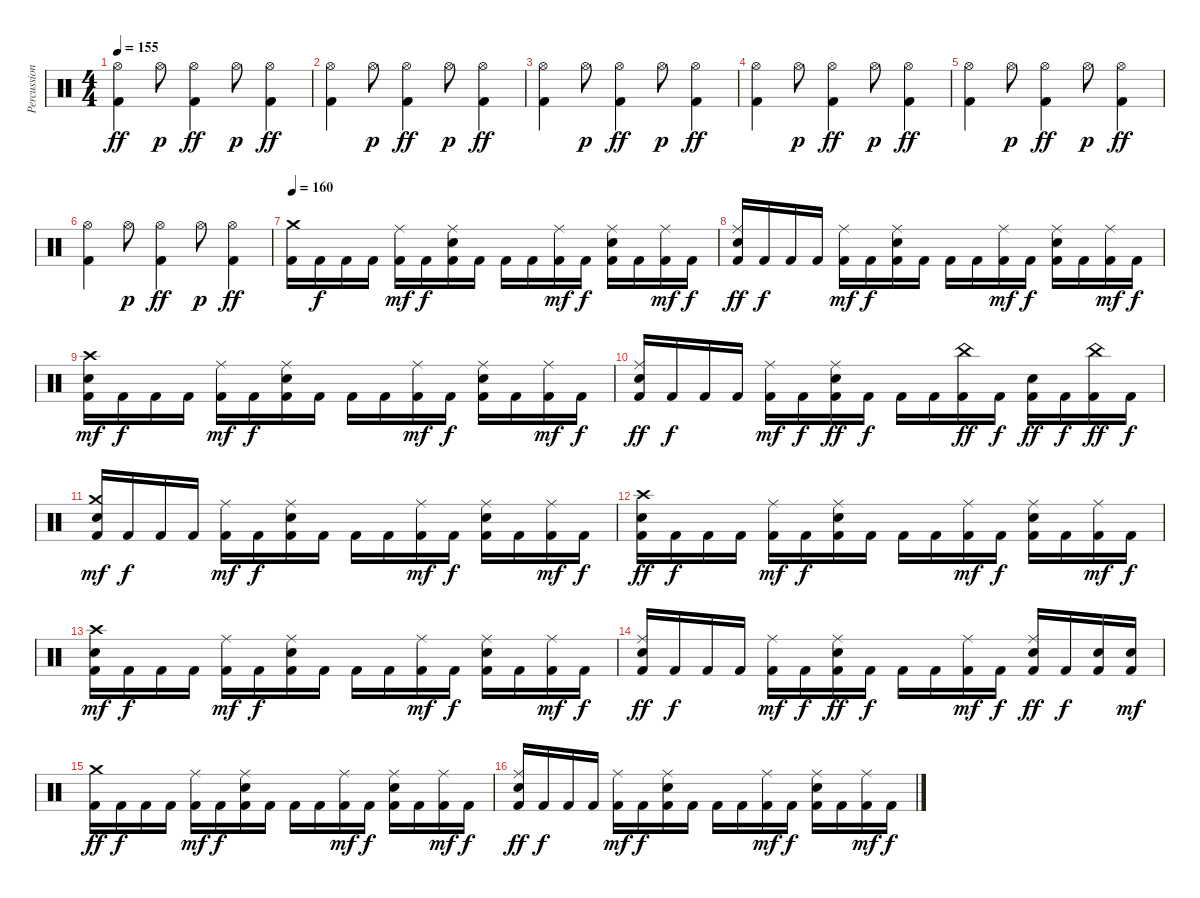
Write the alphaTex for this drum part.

\track ("Percussions" "Percussion") {instrument percussion}
\staff {score}
\articulation defaults
\ts (4 4)
\tempo 155
\clef neutral
\ks c
("Hi-Hat (open)" "Kick (hit) 2").4{dy ff} "Hi-Hat (open)".8{dy p} ("Hi-Hat (open)" "Kick (hit) 2").4{dy ff} "Hi-Hat (open)".8{dy p} ("Hi-Hat (open)" "Kick (hit) 2").4{dy ff} |
("Hi-Hat (open)" "Kick (hit) 2").4 "Hi-Hat (open)".8{dy p} ("Hi-Hat (open)" "Kick (hit) 2").4{dy ff} "Hi-Hat (open)".8{dy p} ("Hi-Hat (open)" "Kick (hit) 2").4{dy ff} |
("Hi-Hat (open)" "Kick (hit) 2").4 "Hi-Hat (open)".8{dy p} ("Hi-Hat (open)" "Kick (hit) 2").4{dy ff} "Hi-Hat (open)".8{dy p} ("Hi-Hat (open)" "Kick (hit) 2").4{dy ff} |
("Hi-Hat (open)" "Kick (hit) 2").4 "Hi-Hat (open)".8{dy p} ("Hi-Hat (open)" "Kick (hit) 2").4{dy ff} "Hi-Hat (open)".8{dy p} ("Hi-Hat (open)" "Kick (hit) 2").4{dy ff} |
("Hi-Hat (open)" "Kick (hit) 2").4 "Hi-Hat (open)".8{dy p} ("Hi-Hat (open)" "Kick (hit) 2").4{dy ff} "Hi-Hat (open)".8{dy p} ("Hi-Hat (open)" "Kick (hit) 2").4{dy ff} |
("Hi-Hat (open)" "Kick (hit) 2").4 "Hi-Hat (open)".8{dy p} ("Hi-Hat (open)" "Kick (hit) 2").4{dy ff} "Hi-Hat (open)".8{dy p} ("Hi-Hat (open)" "Kick (hit) 2").4{dy ff} |
\tempo 160
("Crash medium (hit)" "Kick (hit) 2").16 "Kick (hit) 2".16{dy f} "Kick (hit) 2".16 "Kick (hit) 2".16 ("Ride (middle)" "Kick (hit) 2").16{dy mf} "Kick (hit) 2".16{dy f} ("Ride (middle)" "Electric Snare (hit)" "Kick (hit) 2").16 "Kick (hit) 2".16 "Kick (hit) 2".16 "Kick (hit) 2".16 ("Ride (middle)" "Kick (hit) 2").16{dy mf} "Kick (hit) 2".16{dy f} ("Ride (middle)" "Electric Snare (hit)" "Kick (hit) 2").16 "Kick (hit) 2".16 ("Ride (middle)" "Kick (hit) 2").16{dy mf} "Kick (hit) 2".16{dy f} |
("Ride (middle)" "Electric Snare (hit)" "Kick (hit) 2").16{dy ff} "Kick (hit) 2".16{dy f} "Kick (hit) 2".16 "Kick (hit) 2".16 ("Ride (middle)" "Kick (hit) 2").16{dy mf} "Kick (hit) 2".16{dy f} ("Ride (middle)" "Electric Snare (hit)" "Kick (hit) 2").16 "Kick (hit) 2".16 "Kick (hit) 2".16 "Kick (hit) 2".16 ("Ride (middle)" "Kick (hit) 2").16{dy mf} "Kick (hit) 2".16{dy f} ("Ride (middle)" "Electric Snare (hit)" "Kick (hit) 2").16 "Kick (hit) 2".16 ("Ride (middle)" "Kick (hit) 2").16{dy mf} "Kick (hit) 2".16{dy f} |
("Crash high (hit)" "Electric Snare (hit)" "Kick (hit) 2").16{dy mf} "Kick (hit) 2".16{dy f} "Kick (hit) 2".16 "Kick (hit) 2".16 ("Ride (middle)" "Kick (hit) 2").16{dy mf} "Kick (hit) 2".16{dy f} ("Ride (middle)" "Electric Snare (hit)" "Kick (hit) 2").16 "Kick (hit) 2".16 "Kick (hit) 2".16 "Kick (hit) 2".16 ("Ride (middle)" "Kick (hit) 2").16{dy mf} "Kick (hit) 2".16{dy f} ("Ride (middle)" "Electric Snare (hit)" "Kick (hit) 2").16 "Kick (hit) 2".16 ("Ride (middle)" "Kick (hit) 2").16{dy mf} "Kick (hit) 2".16{dy f} |
("Ride (middle)" "Electric Snare (hit)" "Kick (hit) 2").16{dy ff} "Kick (hit) 2".16{dy f} "Kick (hit) 2".16 "Kick (hit) 2".16 ("Ride (middle)" "Kick (hit) 2").16{dy mf} "Kick (hit) 2".16{dy f} ("Ride (middle)" "Electric Snare (hit)" "Kick (hit) 2").16{dy ff} "Kick (hit) 2".16{dy f} "Kick (hit) 2".16 "Kick (hit) 2".16 ("China (hit)" "Kick (hit) 2").16{dy ff} "Kick (hit) 2".16{dy f} ("Electric Snare (hit)" "Kick (hit) 2").16{dy ff} "Kick (hit) 2".16{dy f} ("China (hit)" "Kick (hit) 2").16{dy ff} "Kick (hit) 2".16{dy f} |
("Crash medium (hit)" "Electric Snare (hit)" "Kick (hit) 2").16{dy mf} "Kick (hit) 2".16{dy f} "Kick (hit) 2".16 "Kick (hit) 2".16 ("Ride (middle)" "Kick (hit) 2").16{dy mf} "Kick (hit) 2".16{dy f} ("Ride (middle)" "Electric Snare (hit)" "Kick (hit) 2").16 "Kick (hit) 2".16 "Kick (hit) 2".16 "Kick (hit) 2".16 ("Ride (middle)" "Kick (hit) 2").16{dy mf} "Kick (hit) 2".16{dy f} ("Ride (middle)" "Electric Snare (hit)" "Kick (hit) 2").16 "Kick (hit) 2".16 ("Ride (middle)" "Kick (hit) 2").16{dy mf} "Kick (hit) 2".16{dy f} |
("Crash high (hit)" "Electric Snare (hit)" "Kick (hit) 2").16{dy ff} "Kick (hit) 2".16{dy f} "Kick (hit) 2".16 "Kick (hit) 2".16 ("Ride (middle)" "Kick (hit) 2").16{dy mf} "Kick (hit) 2".16{dy f} ("Ride (middle)" "Electric Snare (hit)" "Kick (hit) 2").16 "Kick (hit) 2".16 "Kick (hit) 2".16 "Kick (hit) 2".16 ("Ride (middle)" "Kick (hit) 2").16{dy mf} "Kick (hit) 2".16{dy f} ("Ride (middle)" "Electric Snare (hit)" "Kick (hit) 2").16 "Kick (hit) 2".16 ("Ride (middle)" "Kick (hit) 2").16{dy mf} "Kick (hit) 2".16{dy f} |
("Crash high (hit)" "Electric Snare (hit)" "Kick (hit) 2").16{dy mf} "Kick (hit) 2".16{dy f} "Kick (hit) 2".16 "Kick (hit) 2".16 ("Ride (middle)" "Kick (hit) 2").16{dy mf} "Kick (hit) 2".16{dy f} ("Ride (middle)" "Electric Snare (hit)" "Kick (hit) 2").16 "Kick (hit) 2".16 "Kick (hit) 2".16 "Kick (hit) 2".16 ("Ride (middle)" "Kick (hit) 2").16{dy mf} "Kick (hit) 2".16{dy f} ("Ride (middle)" "Electric Snare (hit)" "Kick (hit) 2").16 "Kick (hit) 2".16 ("Ride (middle)" "Kick (hit) 2").16{dy mf} "Kick (hit) 2".16{dy f} |
("Ride (middle)" "Electric Snare (hit)" "Kick (hit) 2").16{dy ff} "Kick (hit) 2".16{dy f} "Kick (hit) 2".16 "Kick (hit) 2".16 ("Ride (middle)" "Kick (hit) 2").16{dy mf} "Kick (hit) 2".16{dy f} ("Ride (middle)" "Electric Snare (hit)" "Kick (hit) 2").16{dy ff} "Kick (hit) 2".16{dy f} "Kick (hit) 2".16 "Kick (hit) 2".16 ("Ride (middle)" "Kick (hit) 2").16{dy mf} "Kick (hit) 2".16{dy f} ("Ride (middle)" "Electric Snare (hit)" "Kick (hit) 2").16{dy ff} "Kick (hit) 2".16{dy f} ("Electric Snare (hit)" "Kick (hit) 2").16 ("Electric Snare (hit)" "Kick (hit) 2").16{dy mf} |
("Crash medium (hit)" "Kick (hit) 2").16{dy ff} "Kick (hit) 2".16{dy f} "Kick (hit) 2".16 "Kick (hit) 2".16 ("Ride (middle)" "Kick (hit) 2").16{dy mf} "Kick (hit) 2".16{dy f} ("Ride (middle)" "Electric Snare (hit)" "Kick (hit) 2").16 "Kick (hit) 2".16 "Kick (hit) 2".16 "Kick (hit) 2".16 ("Ride (middle)" "Kick (hit) 2").16{dy mf} "Kick (hit) 2".16{dy f} ("Ride (middle)" "Electric Snare (hit)" "Kick (hit) 2").16 "Kick (hit) 2".16 ("Ride (middle)" "Kick (hit) 2").16{dy mf} "Kick (hit) 2".16{dy f} |
("Ride (middle)" "Electric Snare (hit)" "Kick (hit) 2").16{dy ff} "Kick (hit) 2".16{dy f} "Kick (hit) 2".16 "Kick (hit) 2".16 ("Ride (middle)" "Kick (hit) 2").16{dy mf} "Kick (hit) 2".16{dy f} ("Ride (middle)" "Electric Snare (hit)" "Kick (hit) 2").16 "Kick (hit) 2".16 "Kick (hit) 2".16 "Kick (hit) 2".16 ("Ride (middle)" "Kick (hit) 2").16{dy mf} "Kick (hit) 2".16{dy f} ("Ride (middle)" "Electric Snare (hit)" "Kick (hit) 2").16 "Kick (hit) 2".16 ("Ride (middle)" "Kick (hit) 2").16{dy mf} "Kick (hit) 2".16{dy f}
